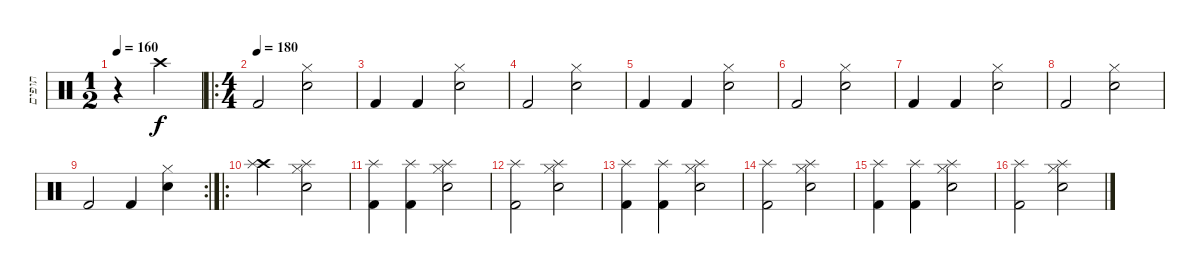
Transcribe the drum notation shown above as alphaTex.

\track ("תופים" "תופים") {instrument percussion}
\staff {score}
\articulation defaults
\ts (1 2)
\tempo 160
\clef neutral
\ks c
r.4{dy f} "Crash high (hit)".4 |
\ro
\ts (4 4)
\tempo (180)
"Kick (hit) 2".2 ("Hi-Hat (closed)" "Snare (hit) 2").2 |
"Kick (hit) 2".4 "Kick (hit) 2".4 ("Hi-Hat (closed)" "Snare (hit) 2").2 |
"Kick (hit) 2".2 ("Hi-Hat (closed)" "Snare (hit) 2").2 |
"Kick (hit) 2".4 "Kick (hit) 2".4 ("Hi-Hat (closed)" "Snare (hit) 2").2 |
"Kick (hit) 2".2 ("Hi-Hat (closed)" "Snare (hit) 2").2 |
"Kick (hit) 2".4 "Kick (hit) 2".4 ("Hi-Hat (closed)" "Snare (hit) 2").2 |
"Kick (hit) 2".2 ("Hi-Hat (closed)" "Snare (hit) 2").2 |
\rc 2 "Kick (hit) 2".2 "Kick (hit) 2".4
("Hi-Hat (closed)" "Snare (hit) 2").4 |
\ro
("Crash high (hit)" "Splash (hit)").2 ("Hi-Hat (closed)" "Snare (hit) 2" "Splash (hit)").2 |
("Kick (hit) 2" "Splash (hit)").4 ("Kick (hit) 2" "Splash (hit)").4 ("Hi-Hat (closed)" "Snare (hit) 2" "Splash (hit)").2 |
("Kick (hit) 2" "Splash (hit)").2 ("Hi-Hat (closed)" "Snare (hit) 2" "Splash (hit)").2 |
("Kick (hit) 2" "Splash (hit)").4 ("Kick (hit) 2" "Splash (hit)").4 ("Hi-Hat (closed)" "Snare (hit) 2" "Splash (hit)").2 |
("Kick (hit) 2" "Splash (hit)").2 ("Hi-Hat (closed)" "Snare (hit) 2" "Splash (hit)").2 |
("Kick (hit) 2" "Splash (hit)").4 ("Kick (hit) 2" "Splash (hit)").4 ("Hi-Hat (closed)" "Snare (hit) 2" "Splash (hit)").2 |
("Kick (hit) 2" "Splash (hit)").2 ("Hi-Hat (closed)" "Snare (hit) 2" "Splash (hit)").2
